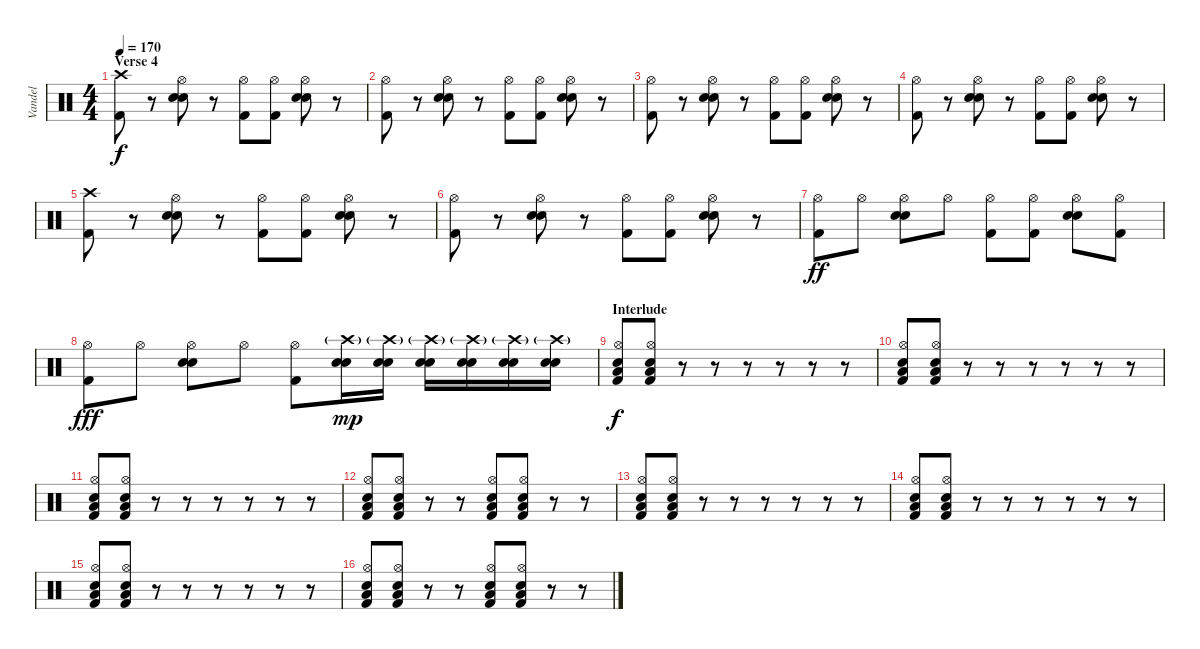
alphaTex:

\track ("Vandel" "Vandel") {instrument percussion}
\staff {score}
\articulation defaults
\ts (4 4)
\section ("" "Verse 4")
\tempo 170
\clef neutral
\ks c
("Crash high (hit)" "Kick (hit) 2").8{dy f} r.8 ("Hi-Hat (open)" "Electric Snare (hit)" "Electric Snare (hit)").8 r.8 ("Hi-Hat (open)" "Kick (hit) 2").8 ("Hi-Hat (open)" "Kick (hit) 2").8 ("Hi-Hat (open)" "Electric Snare (hit)" "Electric Snare (hit)").8 r.8 |
("Hi-Hat (open)" "Kick (hit) 2").8 r.8 ("Hi-Hat (open)" "Electric Snare (hit)" "Electric Snare (hit)").8 r.8 ("Hi-Hat (open)" "Kick (hit) 2").8 ("Hi-Hat (open)" "Kick (hit) 2").8 ("Hi-Hat (open)" "Electric Snare (hit)" "Electric Snare (hit)").8 r.8 |
("Hi-Hat (open)" "Kick (hit) 2").8 r.8 ("Hi-Hat (open)" "Electric Snare (hit)" "Electric Snare (hit)").8 r.8 ("Hi-Hat (open)" "Kick (hit) 2").8 ("Hi-Hat (open)" "Kick (hit) 2").8 ("Hi-Hat (open)" "Electric Snare (hit)" "Electric Snare (hit)").8 r.8 |
("Hi-Hat (open)" "Kick (hit) 2").8 r.8 ("Hi-Hat (open)" "Electric Snare (hit)" "Electric Snare (hit)").8 r.8 ("Hi-Hat (open)" "Kick (hit) 2").8 ("Hi-Hat (open)" "Kick (hit) 2").8 ("Hi-Hat (open)" "Electric Snare (hit)" "Electric Snare (hit)").8 r.8 |
("Crash high (hit)" "Kick (hit) 2").8 r.8 ("Hi-Hat (open)" "Electric Snare (hit)" "Electric Snare (hit)").8 r.8 ("Hi-Hat (open)" "Kick (hit) 2").8 ("Hi-Hat (open)" "Kick (hit) 2").8 ("Hi-Hat (open)" "Electric Snare (hit)" "Electric Snare (hit)").8 r.8 |
("Hi-Hat (open)" "Kick (hit) 2").8 r.8 ("Hi-Hat (open)" "Electric Snare (hit)" "Electric Snare (hit)").8 r.8 ("Hi-Hat (open)" "Kick (hit) 2").8 ("Hi-Hat (open)" "Kick (hit) 2").8 ("Hi-Hat (open)" "Electric Snare (hit)" "Electric Snare (hit)").8 r.8 |
("Hi-Hat (open)" "Kick (hit) 2").8{dy ff} "Hi-Hat (open)".8 ("Hi-Hat (open)" "Electric Snare (hit)" "Electric Snare (hit)").8 "Hi-Hat (open)".8 ("Hi-Hat (open)" "Kick (hit) 2").8 ("Hi-Hat (open)" "Kick (hit) 2").8 ("Hi-Hat (open)" "Electric Snare (hit)" "Electric Snare (hit)").8 ("Hi-Hat (open)" "Kick (hit) 2").8 |
("Hi-Hat (open)" "Kick (hit) 2").8{dy fff} "Hi-Hat (open)".8 ("Hi-Hat (open)" "Electric Snare (hit)" "Electric Snare (hit)").8 "Hi-Hat (open)".8 ("Hi-Hat (open)" "Kick (hit) 2").8 ("Crash high (hit)"{g} "Electric Snare (hit)" "Electric Snare (hit)").16{dy mp} ("Crash high (hit)"{g} "Electric Snare (hit)" "Electric Snare (hit)").16 ("Crash high (hit)"{g} "Electric Snare (hit)" "Electric Snare (hit)").16 ("Crash high (hit)"{g} "Electric Snare (hit)" "Electric Snare (hit)").16 ("Crash high (hit)"{g} "Electric Snare (hit)" "Electric Snare (hit)").16 ("Crash high (hit)"{g} "Electric Snare (hit)" "Electric Snare (hit)").16 |
\section ("" "Interlude")
("Hi-Hat (open)" "Low Floor Tom (hit)" "Electric Snare (hit)" "Kick (hit) 2").8{dy f} ("Hi-Hat (open)" "Low Floor Tom (hit)" "Electric Snare (hit)" "Kick (hit) 2").8 r.8 r.8 r.8 r.8 r.8 r.8 |
("Hi-Hat (open)" "Low Floor Tom (hit)" "Electric Snare (hit)" "Kick (hit) 2").8 ("Hi-Hat (open)" "Low Floor Tom (hit)" "Electric Snare (hit)" "Kick (hit) 2").8 r.8 r.8 r.8 r.8 r.8 r.8 |
("Hi-Hat (open)" "Low Floor Tom (hit)" "Electric Snare (hit)" "Kick (hit) 2").8 ("Hi-Hat (open)" "Low Floor Tom (hit)" "Electric Snare (hit)" "Kick (hit) 2").8 r.8 r.8 r.8 r.8 r.8 r.8 |
("Hi-Hat (open)" "Low Floor Tom (hit)" "Electric Snare (hit)" "Kick (hit) 2").8 ("Hi-Hat (open)" "Low Floor Tom (hit)" "Electric Snare (hit)" "Kick (hit) 2").8 r.8 r.8 ("Hi-Hat (open)" "Low Floor Tom (hit)" "Electric Snare (hit)" "Kick (hit) 2").8 ("Hi-Hat (open)" "Low Floor Tom (hit)" "Electric Snare (hit)" "Kick (hit) 2").8 r.8 r.8 |
("Hi-Hat (open)" "Low Floor Tom (hit)" "Electric Snare (hit)" "Kick (hit) 2").8 ("Hi-Hat (open)" "Low Floor Tom (hit)" "Electric Snare (hit)" "Kick (hit) 2").8 r.8 r.8 r.8 r.8 r.8 r.8 |
("Hi-Hat (open)" "Low Floor Tom (hit)" "Electric Snare (hit)" "Kick (hit) 2").8 ("Hi-Hat (open)" "Low Floor Tom (hit)" "Electric Snare (hit)" "Kick (hit) 2").8 r.8 r.8 r.8 r.8 r.8 r.8 |
("Hi-Hat (open)" "Low Floor Tom (hit)" "Electric Snare (hit)" "Kick (hit) 2").8 ("Hi-Hat (open)" "Low Floor Tom (hit)" "Electric Snare (hit)" "Kick (hit) 2").8 r.8 r.8 r.8 r.8 r.8 r.8 |
("Hi-Hat (open)" "Low Floor Tom (hit)" "Electric Snare (hit)" "Kick (hit) 2").8 ("Hi-Hat (open)" "Low Floor Tom (hit)" "Electric Snare (hit)" "Kick (hit) 2").8 r.8 r.8 ("Hi-Hat (open)" "Low Floor Tom (hit)" "Electric Snare (hit)" "Kick (hit) 2").8 ("Hi-Hat (open)" "Low Floor Tom (hit)" "Electric Snare (hit)" "Kick (hit) 2").8 r.8 r.8
